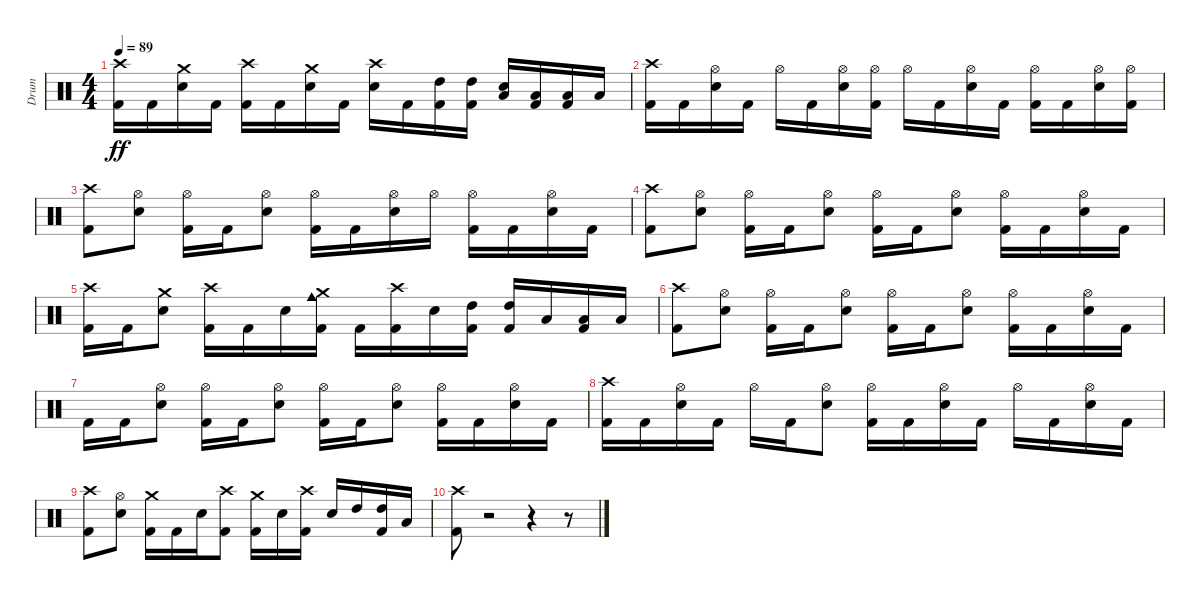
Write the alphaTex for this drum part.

\track ("Drum" "Drum") {instrument percussion}
\staff {score}
\articulation defaults
\ts (4 4)
\tempo 89
\clef neutral
\ks c
("Kick (hit) 2" "Crash high (hit)").16{dy ff} "Kick (hit) 2".16 ("Crash medium (hit)" "Electric Snare (hit)").16 "Kick (hit) 2".16 ("Crash high (hit)" "Kick (hit) 2").16 "Kick (hit) 2".16 ("Electric Snare (hit)" "Crash medium (hit)").16 "Kick (hit) 2".16 ("Crash high (hit)" "Electric Snare (hit)").16 "Kick (hit) 2".16 ("High Tom (hit)" "Kick (hit) 2").16 ("Kick (hit) 2" "High Tom (hit)").16 ("Electric Snare (hit)" "Low Tom (hit)").16 ("Kick (hit) 2" "Low Tom (hit)").16 ("Low Tom (hit)" "Kick (hit) 2").16 "Low Floor Tom (hit)".16 |
("Crash high (hit)" "Kick (hit) 2").16 "Kick (hit) 2".16 ("Electric Snare (hit)" "Hi-Hat (open)").16 "Kick (hit) 2".16 "Hi-Hat (open)".16 "Kick (hit) 2".16 ("Electric Snare (hit)" "Hi-Hat (open)").16 ("Kick (hit) 2" "Hi-Hat (open)").16 "Hi-Hat (open)".16 "Kick (hit) 2".16 ("Electric Snare (hit)" "Hi-Hat (open)").16 "Kick (hit) 2".16 ("Kick (hit) 2" "Hi-Hat (open)").16 "Kick (hit) 2".16 ("Electric Snare (hit)" "Hi-Hat (open)").16 ("Kick (hit) 2" "Hi-Hat (open)").16 |
("Kick (hit) 2" "Crash high (hit)").8 ("Electric Snare (hit)" "Hi-Hat (open)").8 ("Kick (hit) 2" "Hi-Hat (open)").16 "Kick (hit) 2".16 ("Hi-Hat (open)" "Electric Snare (hit)").8 ("Kick (hit) 2" "Hi-Hat (open)").16 "Kick (hit) 2".16 ("Electric Snare (hit)" "Hi-Hat (open)").16 "Hi-Hat (open)".16 ("Kick (hit) 2" "Hi-Hat (open)").16 "Kick (hit) 2".16 ("Electric Snare (hit)" "Hi-Hat (open)").16 "Kick (hit) 2".16 |
("Kick (hit) 2" "Crash high (hit)").8 ("Electric Snare (hit)" "Hi-Hat (open)").8 ("Kick (hit) 2" "Hi-Hat (open)").16 "Kick (hit) 2".16 ("Electric Snare (hit)" "Hi-Hat (open)").8 ("Kick (hit) 2" "Hi-Hat (open)").16 "Kick (hit) 2".16 ("Electric Snare (hit)" "Hi-Hat (open)").8 ("Kick (hit) 2" "Hi-Hat (open)").16 "Kick (hit) 2".16 ("Electric Snare (hit)" "Hi-Hat (open)").16 "Kick (hit) 2".16 |
("Crash high (hit)" "Kick (hit) 2").16 "Kick (hit) 2".16 ("Crash medium (hit)" "Electric Snare (hit)").8 ("Crash high (hit)" "Kick (hit) 2").16 "Kick (hit) 2".16 "Electric Snare (hit)".16 ("Kick (hit) 2" "Crash medium (hit)" "Cowbell medium (hit)").16 "Kick (hit) 2".16 ("Crash high (hit)" "Kick (hit) 2").16 "Electric Snare (hit)".16 ("High Tom (hit)" "Kick (hit) 2").16 ("High Tom (hit)" "Kick (hit) 2").16 "Low Tom (hit)".16 ("Kick (hit) 2" "Low Tom (hit)").16 "Low Floor Tom (hit)".16 |
("Kick (hit) 2" "Crash high (hit)").8 ("Electric Snare (hit)" "Hi-Hat (open)").8 ("Kick (hit) 2" "Hi-Hat (open)").16 "Kick (hit) 2".16 ("Electric Snare (hit)" "Hi-Hat (open)").8 ("Kick (hit) 2" "Hi-Hat (open)").16 "Kick (hit) 2".16 ("Electric Snare (hit)" "Hi-Hat (open)").8 ("Kick (hit) 2" "Hi-Hat (open)").16 "Kick (hit) 2".16 ("Electric Snare (hit)" "Hi-Hat (open)").16 "Kick (hit) 2".16 |
"Kick (hit) 2".16 "Kick (hit) 2".16 ("Hi-Hat (open)" "Electric Snare (hit)").8 ("Kick (hit) 2" "Hi-Hat (open)").16 "Kick (hit) 2".16 ("Electric Snare (hit)" "Hi-Hat (open)").8 ("Kick (hit) 2" "Hi-Hat (open)").16 "Kick (hit) 2".16 ("Electric Snare (hit)" "Hi-Hat (open)").8 ("Kick (hit) 2" "Hi-Hat (open)").16 "Kick (hit) 2".16 ("Electric Snare (hit)" "Hi-Hat (open)").16 "Kick (hit) 2".16 |
("Kick (hit) 2" "Crash high (hit)").16 "Kick (hit) 2".16 ("Electric Snare (hit)" "Hi-Hat (open)").16 "Kick (hit) 2".16 "Hi-Hat (open)".16 "Kick (hit) 2".16 ("Electric Snare (hit)" "Hi-Hat (open)").8 ("Kick (hit) 2" "Hi-Hat (open)").16 "Kick (hit) 2".16 ("Electric Snare (hit)" "Hi-Hat (open)").16 "Kick (hit) 2".16 "Hi-Hat (open)".16 "Kick (hit) 2".16 ("Electric Snare (hit)" "Hi-Hat (open)").16 "Kick (hit) 2".16 |
("Kick (hit) 2" "Crash high (hit)").8 ("Hi-Hat (open)" "Electric Snare (hit)").8 ("Crash medium (hit)" "Kick (hit) 2").16 "Kick (hit) 2".16 "Electric Snare (hit)".16 ("Crash high (hit)" "Kick (hit) 2").8 ("Kick (hit) 2" "Crash medium (hit)").16 "Electric Snare (hit)".16 ("Kick (hit) 2" "Crash high (hit)").16 "Electric Snare (hit)".16 "High Tom (hit)".16 ("Kick (hit) 2" "High Tom (hit)").16 "Low Floor Tom (hit)".16 |
("Crash high (hit)" "Kick (hit) 2").8 r.2 r.4 r.8
